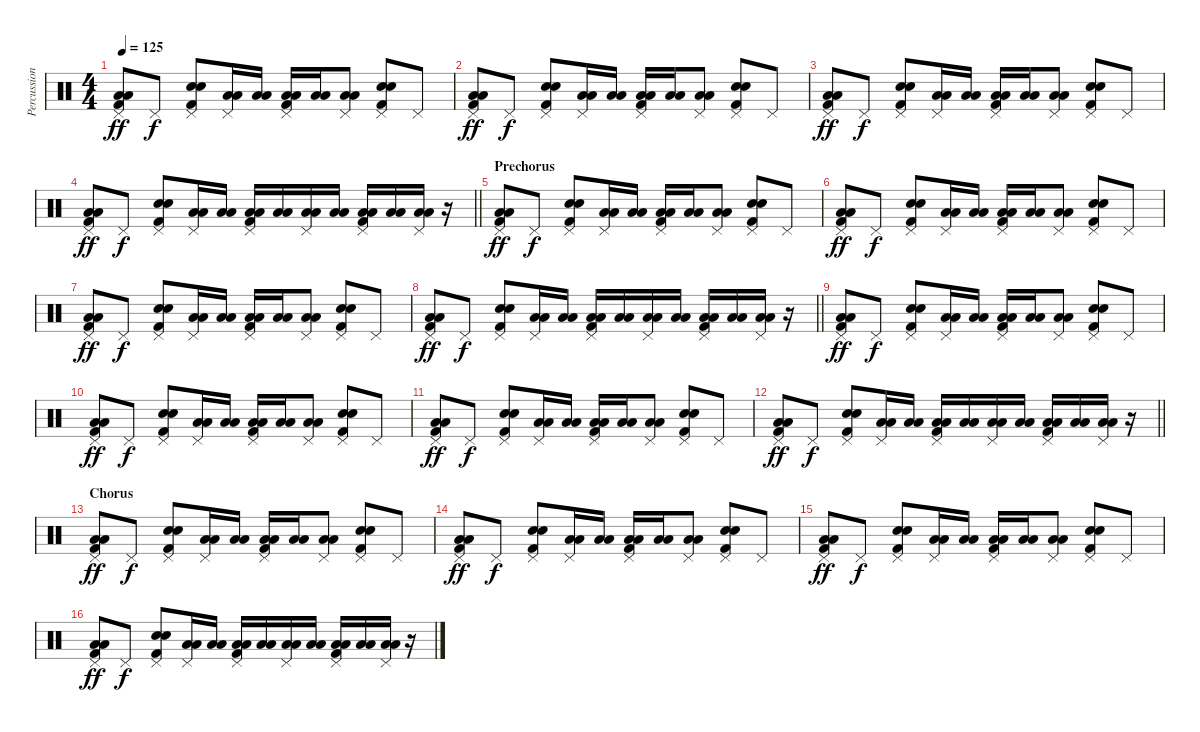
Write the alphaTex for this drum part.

\track ("Percussion" "Percussion") {instrument percussion}
\staff {score}
\articulation defaults
\ts (4 4)
\tempo 125
\clef neutral
\ks c
("Pedal Hi-Hat (hit)" "Low Floor Tom (hit)" "Low Floor Tom (hit)" "Kick (hit) 2").8{dy ff} "Pedal Hi-Hat (hit)".8{dy f} ("Pedal Hi-Hat (hit)" "Electric Snare (hit)" "Electric Snare (hit)" "Kick (hit) 2").8 ("Pedal Hi-Hat (hit)" "Low Floor Tom (hit)" "Low Floor Tom (hit)").16 ("Low Tom (hit)" "Low Tom (hit)").16 ("Pedal Hi-Hat (hit)" "Low Floor Tom (hit)" "Low Floor Tom (hit)" "Kick (hit) 2").16 ("Low Floor Tom (hit)" "Low Floor Tom (hit)").16 ("Pedal Hi-Hat (hit)" "Low Floor Tom (hit)" "Low Floor Tom (hit)").8 ("Pedal Hi-Hat (hit)" "Electric Snare (hit)" "Electric Snare (hit)" "Kick (hit) 2").8 "Pedal Hi-Hat (hit)".8 |
("Pedal Hi-Hat (hit)" "Low Floor Tom (hit)" "Low Floor Tom (hit)" "Kick (hit) 2").8{dy ff} "Pedal Hi-Hat (hit)".8{dy f} ("Pedal Hi-Hat (hit)" "Electric Snare (hit)" "Electric Snare (hit)" "Kick (hit) 2").8 ("Pedal Hi-Hat (hit)" "Low Floor Tom (hit)" "Low Floor Tom (hit)").16 ("Low Tom (hit)" "Low Tom (hit)").16 ("Pedal Hi-Hat (hit)" "Low Floor Tom (hit)" "Low Floor Tom (hit)" "Kick (hit) 2").16 ("Low Floor Tom (hit)" "Low Floor Tom (hit)").16 ("Pedal Hi-Hat (hit)" "Low Floor Tom (hit)" "Low Floor Tom (hit)").8 ("Pedal Hi-Hat (hit)" "Electric Snare (hit)" "Electric Snare (hit)" "Kick (hit) 2").8 "Pedal Hi-Hat (hit)".8 |
("Pedal Hi-Hat (hit)" "Low Floor Tom (hit)" "Low Floor Tom (hit)" "Kick (hit) 2").8{dy ff} "Pedal Hi-Hat (hit)".8{dy f} ("Pedal Hi-Hat (hit)" "Electric Snare (hit)" "Electric Snare (hit)" "Kick (hit) 2").8 ("Pedal Hi-Hat (hit)" "Low Floor Tom (hit)" "Low Floor Tom (hit)").16 ("Low Tom (hit)" "Low Tom (hit)").16 ("Pedal Hi-Hat (hit)" "Low Floor Tom (hit)" "Low Floor Tom (hit)" "Kick (hit) 2").16 ("Low Floor Tom (hit)" "Low Floor Tom (hit)").16 ("Pedal Hi-Hat (hit)" "Low Floor Tom (hit)" "Low Floor Tom (hit)").8 ("Pedal Hi-Hat (hit)" "Electric Snare (hit)" "Electric Snare (hit)" "Kick (hit) 2").8 "Pedal Hi-Hat (hit)".8 |
\barLineRight lightlight
("Pedal Hi-Hat (hit)" "Low Floor Tom (hit)" "Low Floor Tom (hit)" "Kick (hit) 2").8{dy ff} "Pedal Hi-Hat (hit)".8{dy f} ("Pedal Hi-Hat (hit)" "Electric Snare (hit)" "Electric Snare (hit)" "Kick (hit) 2").8 ("Pedal Hi-Hat (hit)" "Low Floor Tom (hit)" "Low Floor Tom (hit)").16 ("Low Tom (hit)" "Low Tom (hit)").16 ("Pedal Hi-Hat (hit)" "Low Floor Tom (hit)" "Low Floor Tom (hit)" "Kick (hit) 2").16 ("Low Floor Tom (hit)" "Low Floor Tom (hit)").16 ("Pedal Hi-Hat (hit)" "Low Floor Tom (hit)" "Low Floor Tom (hit)").16 ("Low Tom (hit)" "Low Tom (hit)").16 ("Pedal Hi-Hat (hit)" "Low Floor Tom (hit)" "Low Floor Tom (hit)" "Kick (hit) 2").16 ("Low Floor Tom (hit)" "Low Floor Tom (hit)").16 ("Pedal Hi-Hat (hit)" "Low Floor Tom (hit)" "Low Floor Tom (hit)").16 r.16 |
\section ("" "Prechorus")
("Pedal Hi-Hat (hit)" "Low Floor Tom (hit)" "Low Floor Tom (hit)" "Kick (hit) 2").8{dy ff} "Pedal Hi-Hat (hit)".8{dy f} ("Pedal Hi-Hat (hit)" "Electric Snare (hit)" "Electric Snare (hit)" "Kick (hit) 2").8 ("Pedal Hi-Hat (hit)" "Low Floor Tom (hit)" "Low Floor Tom (hit)").16 ("Low Tom (hit)" "Low Tom (hit)").16 ("Pedal Hi-Hat (hit)" "Low Floor Tom (hit)" "Low Floor Tom (hit)" "Kick (hit) 2").16 ("Low Floor Tom (hit)" "Low Floor Tom (hit)").16 ("Pedal Hi-Hat (hit)" "Low Floor Tom (hit)" "Low Floor Tom (hit)").8 ("Pedal Hi-Hat (hit)" "Electric Snare (hit)" "Electric Snare (hit)" "Kick (hit) 2").8 "Pedal Hi-Hat (hit)".8 |
("Pedal Hi-Hat (hit)" "Low Floor Tom (hit)" "Low Floor Tom (hit)" "Kick (hit) 2").8{dy ff} "Pedal Hi-Hat (hit)".8{dy f} ("Pedal Hi-Hat (hit)" "Electric Snare (hit)" "Electric Snare (hit)" "Kick (hit) 2").8 ("Pedal Hi-Hat (hit)" "Low Floor Tom (hit)" "Low Floor Tom (hit)").16 ("Low Tom (hit)" "Low Tom (hit)").16 ("Pedal Hi-Hat (hit)" "Low Floor Tom (hit)" "Low Floor Tom (hit)" "Kick (hit) 2").16 ("Low Floor Tom (hit)" "Low Floor Tom (hit)").16 ("Pedal Hi-Hat (hit)" "Low Floor Tom (hit)" "Low Floor Tom (hit)").8 ("Pedal Hi-Hat (hit)" "Electric Snare (hit)" "Electric Snare (hit)" "Kick (hit) 2").8 "Pedal Hi-Hat (hit)".8 |
("Pedal Hi-Hat (hit)" "Low Floor Tom (hit)" "Low Floor Tom (hit)" "Kick (hit) 2").8{dy ff} "Pedal Hi-Hat (hit)".8{dy f} ("Pedal Hi-Hat (hit)" "Electric Snare (hit)" "Electric Snare (hit)" "Kick (hit) 2").8 ("Pedal Hi-Hat (hit)" "Low Floor Tom (hit)" "Low Floor Tom (hit)").16 ("Low Tom (hit)" "Low Tom (hit)").16 ("Pedal Hi-Hat (hit)" "Low Floor Tom (hit)" "Low Floor Tom (hit)" "Kick (hit) 2").16 ("Low Floor Tom (hit)" "Low Floor Tom (hit)").16 ("Pedal Hi-Hat (hit)" "Low Floor Tom (hit)" "Low Floor Tom (hit)").8 ("Pedal Hi-Hat (hit)" "Electric Snare (hit)" "Electric Snare (hit)" "Kick (hit) 2").8 "Pedal Hi-Hat (hit)".8 |
\barLineRight lightlight
("Pedal Hi-Hat (hit)" "Low Floor Tom (hit)" "Low Floor Tom (hit)" "Kick (hit) 2").8{dy ff} "Pedal Hi-Hat (hit)".8{dy f} ("Pedal Hi-Hat (hit)" "Electric Snare (hit)" "Electric Snare (hit)" "Kick (hit) 2").8 ("Pedal Hi-Hat (hit)" "Low Floor Tom (hit)" "Low Floor Tom (hit)").16 ("Low Tom (hit)" "Low Tom (hit)").16 ("Pedal Hi-Hat (hit)" "Low Floor Tom (hit)" "Low Floor Tom (hit)" "Kick (hit) 2").16 ("Low Floor Tom (hit)" "Low Floor Tom (hit)").16 ("Pedal Hi-Hat (hit)" "Low Floor Tom (hit)" "Low Floor Tom (hit)").16 ("Low Tom (hit)" "Low Tom (hit)").16 ("Pedal Hi-Hat (hit)" "Low Floor Tom (hit)" "Low Floor Tom (hit)" "Kick (hit) 2").16 ("Low Floor Tom (hit)" "Low Floor Tom (hit)").16 ("Pedal Hi-Hat (hit)" "Low Floor Tom (hit)" "Low Floor Tom (hit)").16 r.16 |
("Pedal Hi-Hat (hit)" "Low Floor Tom (hit)" "Low Floor Tom (hit)" "Kick (hit) 2").8{dy ff} "Pedal Hi-Hat (hit)".8{dy f} ("Pedal Hi-Hat (hit)" "Electric Snare (hit)" "Electric Snare (hit)" "Kick (hit) 2").8 ("Pedal Hi-Hat (hit)" "Low Floor Tom (hit)" "Low Floor Tom (hit)").16 ("Low Tom (hit)" "Low Tom (hit)").16 ("Pedal Hi-Hat (hit)" "Low Floor Tom (hit)" "Low Floor Tom (hit)" "Kick (hit) 2").16 ("Low Floor Tom (hit)" "Low Floor Tom (hit)").16 ("Pedal Hi-Hat (hit)" "Low Floor Tom (hit)" "Low Floor Tom (hit)").8 ("Pedal Hi-Hat (hit)" "Electric Snare (hit)" "Electric Snare (hit)" "Kick (hit) 2").8 "Pedal Hi-Hat (hit)".8 |
("Pedal Hi-Hat (hit)" "Low Floor Tom (hit)" "Low Floor Tom (hit)" "Kick (hit) 2").8{dy ff} "Pedal Hi-Hat (hit)".8{dy f} ("Pedal Hi-Hat (hit)" "Electric Snare (hit)" "Electric Snare (hit)" "Kick (hit) 2").8 ("Pedal Hi-Hat (hit)" "Low Floor Tom (hit)" "Low Floor Tom (hit)").16 ("Low Tom (hit)" "Low Tom (hit)").16 ("Pedal Hi-Hat (hit)" "Low Floor Tom (hit)" "Low Floor Tom (hit)" "Kick (hit) 2").16 ("Low Floor Tom (hit)" "Low Floor Tom (hit)").16 ("Pedal Hi-Hat (hit)" "Low Floor Tom (hit)" "Low Floor Tom (hit)").8 ("Pedal Hi-Hat (hit)" "Electric Snare (hit)" "Electric Snare (hit)" "Kick (hit) 2").8 "Pedal Hi-Hat (hit)".8 |
("Pedal Hi-Hat (hit)" "Low Floor Tom (hit)" "Low Floor Tom (hit)" "Kick (hit) 2").8{dy ff} "Pedal Hi-Hat (hit)".8{dy f} ("Pedal Hi-Hat (hit)" "Electric Snare (hit)" "Electric Snare (hit)" "Kick (hit) 2").8 ("Pedal Hi-Hat (hit)" "Low Floor Tom (hit)" "Low Floor Tom (hit)").16 ("Low Tom (hit)" "Low Tom (hit)").16 ("Pedal Hi-Hat (hit)" "Low Floor Tom (hit)" "Low Floor Tom (hit)" "Kick (hit) 2").16 ("Low Floor Tom (hit)" "Low Floor Tom (hit)").16 ("Pedal Hi-Hat (hit)" "Low Floor Tom (hit)" "Low Floor Tom (hit)").8 ("Pedal Hi-Hat (hit)" "Electric Snare (hit)" "Electric Snare (hit)" "Kick (hit) 2").8 "Pedal Hi-Hat (hit)".8 |
\barLineRight lightlight
("Pedal Hi-Hat (hit)" "Low Floor Tom (hit)" "Low Floor Tom (hit)" "Kick (hit) 2").8{dy ff} "Pedal Hi-Hat (hit)".8{dy f} ("Pedal Hi-Hat (hit)" "Electric Snare (hit)" "Electric Snare (hit)" "Kick (hit) 2").8 ("Pedal Hi-Hat (hit)" "Low Floor Tom (hit)" "Low Floor Tom (hit)").16 ("Low Tom (hit)" "Low Tom (hit)").16 ("Pedal Hi-Hat (hit)" "Low Floor Tom (hit)" "Low Floor Tom (hit)" "Kick (hit) 2").16 ("Low Floor Tom (hit)" "Low Floor Tom (hit)").16 ("Pedal Hi-Hat (hit)" "Low Floor Tom (hit)" "Low Floor Tom (hit)").16 ("Low Tom (hit)" "Low Tom (hit)").16 ("Pedal Hi-Hat (hit)" "Low Floor Tom (hit)" "Low Floor Tom (hit)" "Kick (hit) 2").16 ("Low Floor Tom (hit)" "Low Floor Tom (hit)").16 ("Pedal Hi-Hat (hit)" "Low Floor Tom (hit)" "Low Floor Tom (hit)").16 r.16 |
\section ("" "Chorus")
("Pedal Hi-Hat (hit)" "Low Floor Tom (hit)" "Low Floor Tom (hit)" "Kick (hit) 2").8{dy ff} "Pedal Hi-Hat (hit)".8{dy f} ("Pedal Hi-Hat (hit)" "Electric Snare (hit)" "Electric Snare (hit)" "Kick (hit) 2").8 ("Pedal Hi-Hat (hit)" "Low Floor Tom (hit)" "Low Floor Tom (hit)").16 ("Low Tom (hit)" "Low Tom (hit)").16 ("Pedal Hi-Hat (hit)" "Low Floor Tom (hit)" "Low Floor Tom (hit)" "Kick (hit) 2").16 ("Low Floor Tom (hit)" "Low Floor Tom (hit)").16 ("Pedal Hi-Hat (hit)" "Low Floor Tom (hit)" "Low Floor Tom (hit)").8 ("Pedal Hi-Hat (hit)" "Electric Snare (hit)" "Electric Snare (hit)" "Kick (hit) 2").8 "Pedal Hi-Hat (hit)".8 |
("Pedal Hi-Hat (hit)" "Low Floor Tom (hit)" "Low Floor Tom (hit)" "Kick (hit) 2").8{dy ff} "Pedal Hi-Hat (hit)".8{dy f} ("Pedal Hi-Hat (hit)" "Electric Snare (hit)" "Electric Snare (hit)" "Kick (hit) 2").8 ("Pedal Hi-Hat (hit)" "Low Floor Tom (hit)" "Low Floor Tom (hit)").16 ("Low Tom (hit)" "Low Tom (hit)").16 ("Pedal Hi-Hat (hit)" "Low Floor Tom (hit)" "Low Floor Tom (hit)" "Kick (hit) 2").16 ("Low Floor Tom (hit)" "Low Floor Tom (hit)").16 ("Pedal Hi-Hat (hit)" "Low Floor Tom (hit)" "Low Floor Tom (hit)").8 ("Pedal Hi-Hat (hit)" "Electric Snare (hit)" "Electric Snare (hit)" "Kick (hit) 2").8 "Pedal Hi-Hat (hit)".8 |
("Pedal Hi-Hat (hit)" "Low Floor Tom (hit)" "Low Floor Tom (hit)" "Kick (hit) 2").8{dy ff} "Pedal Hi-Hat (hit)".8{dy f} ("Pedal Hi-Hat (hit)" "Electric Snare (hit)" "Electric Snare (hit)" "Kick (hit) 2").8 ("Pedal Hi-Hat (hit)" "Low Floor Tom (hit)" "Low Floor Tom (hit)").16 ("Low Tom (hit)" "Low Tom (hit)").16 ("Pedal Hi-Hat (hit)" "Low Floor Tom (hit)" "Low Floor Tom (hit)" "Kick (hit) 2").16 ("Low Floor Tom (hit)" "Low Floor Tom (hit)").16 ("Pedal Hi-Hat (hit)" "Low Floor Tom (hit)" "Low Floor Tom (hit)").8 ("Pedal Hi-Hat (hit)" "Electric Snare (hit)" "Electric Snare (hit)" "Kick (hit) 2").8 "Pedal Hi-Hat (hit)".8 |
("Pedal Hi-Hat (hit)" "Low Floor Tom (hit)" "Low Floor Tom (hit)" "Kick (hit) 2").8{dy ff} "Pedal Hi-Hat (hit)".8{dy f} ("Pedal Hi-Hat (hit)" "Electric Snare (hit)" "Electric Snare (hit)" "Kick (hit) 2").8 ("Pedal Hi-Hat (hit)" "Low Floor Tom (hit)" "Low Floor Tom (hit)").16 ("Low Tom (hit)" "Low Tom (hit)").16 ("Pedal Hi-Hat (hit)" "Low Floor Tom (hit)" "Low Floor Tom (hit)" "Kick (hit) 2").16 ("Low Floor Tom (hit)" "Low Floor Tom (hit)").16 ("Pedal Hi-Hat (hit)" "Low Floor Tom (hit)" "Low Floor Tom (hit)").16 ("Low Tom (hit)" "Low Tom (hit)").16 ("Pedal Hi-Hat (hit)" "Low Floor Tom (hit)" "Low Floor Tom (hit)" "Kick (hit) 2").16 ("Low Floor Tom (hit)" "Low Floor Tom (hit)").16 ("Pedal Hi-Hat (hit)" "Low Floor Tom (hit)" "Low Floor Tom (hit)").16 r.16
